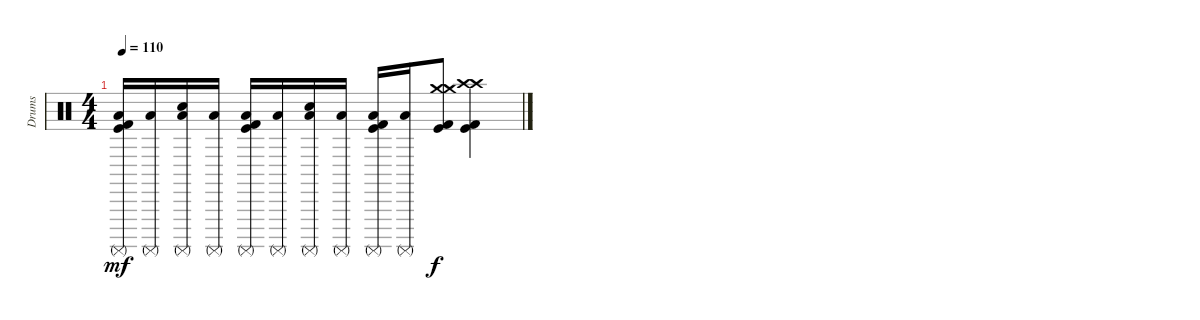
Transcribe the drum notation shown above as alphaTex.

\track ("Drums" "Drums") {instrument percussion}
\staff {score}
\articulation defaults
\ts (4 4)
\tempo 110
\clef neutral
\ks c
("Surdo (mute)" "Low Floor Tom (hit)" "Kick (hit) 2" "Kick (hit)").16{dy mf} ("Surdo (mute)" "Low Floor Tom (hit)").16 ("Surdo (mute)" "Low Floor Tom (hit)" "Snare (hit) 2").16 ("Surdo (mute)" "Low Floor Tom (hit)").16 ("Surdo (mute)" "Low Floor Tom (hit)" "Kick (hit) 2" "Kick (hit)").16 ("Surdo (mute)" "Low Floor Tom (hit)").16 ("Surdo (mute)" "Low Floor Tom (hit)" "Snare (hit) 2").16 ("Surdo (mute)" "Low Floor Tom (hit)").16 ("Surdo (mute)" "Low Floor Tom (hit)" "Kick (hit) 2" "Kick (hit)").16 ("Surdo (mute)" "Low Floor Tom (hit)").16 ("Crash medium (hit)" "Crash medium (hit)" "Kick (hit) 2" "Kick (hit)").8{dy f} ("Crash high (hit)" "Crash high (hit)" "Kick (hit) 2" "Kick (hit)").4
